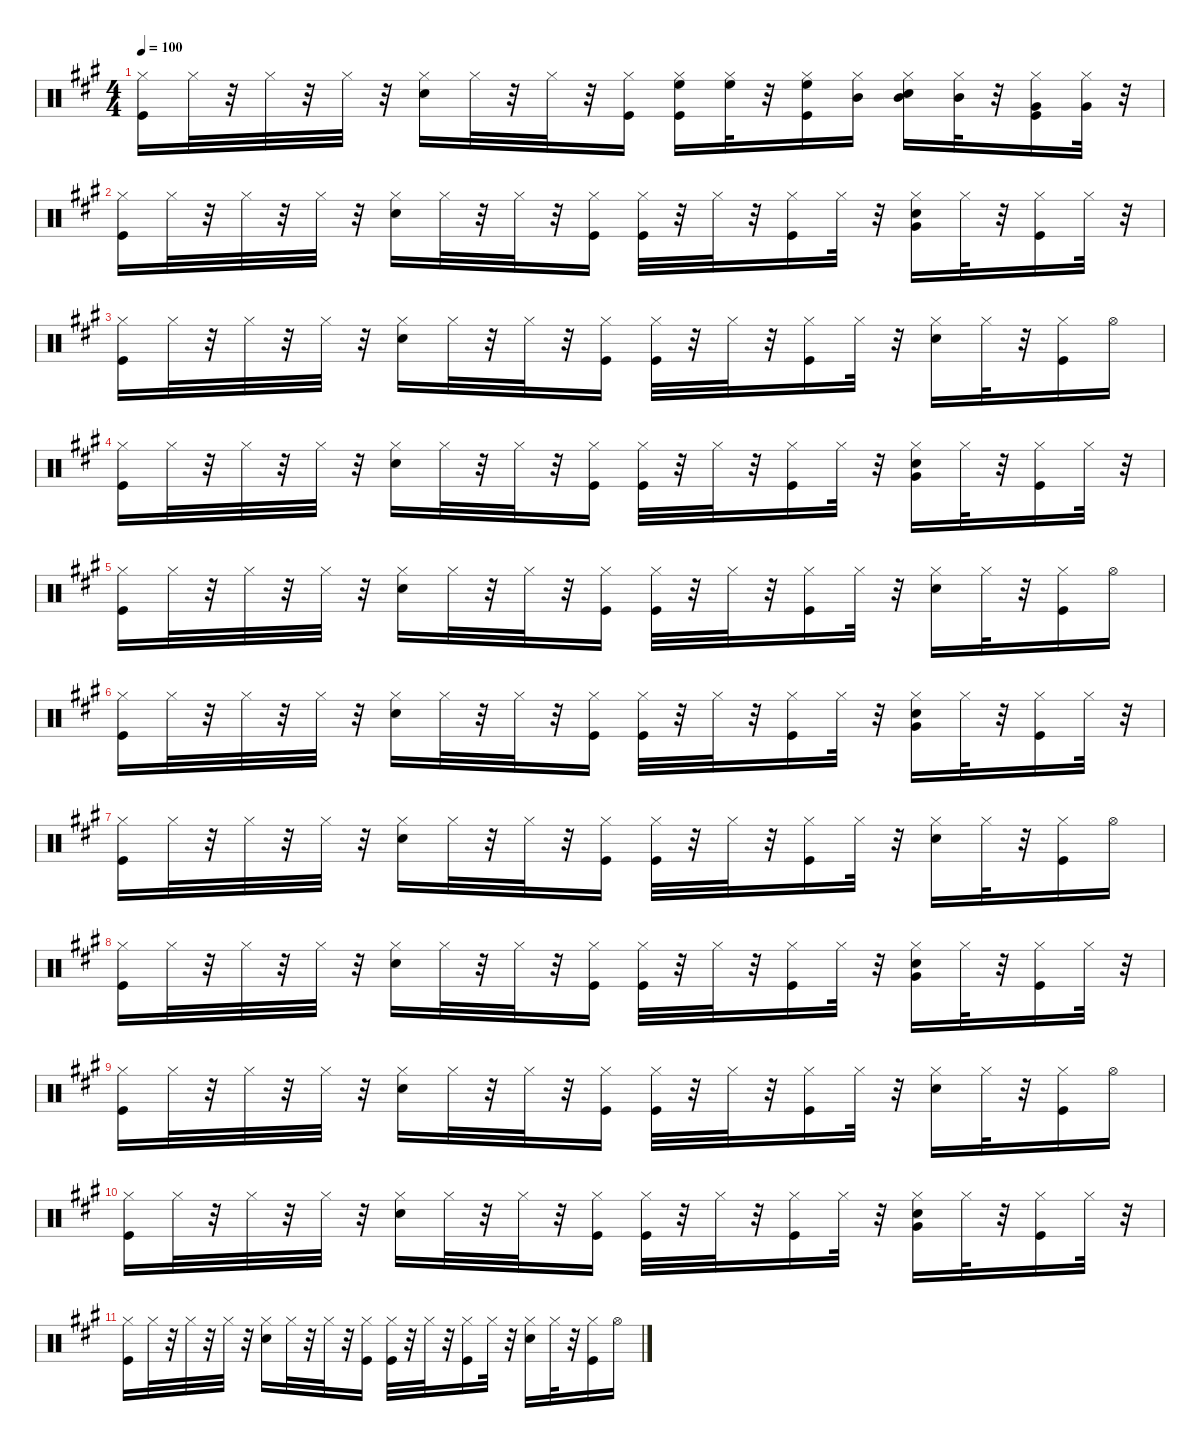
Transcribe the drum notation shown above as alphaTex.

\defaultSystemsLayout 4
\hideDynamics
\bracketExtendMode nobrackets
\singleTrackTrackNamePolicy hidden
\multiTrackTrackNamePolicy hidden
\otherSystemsTrackNameOrientation horizontal
\track ("Percussion" "drm.") {instrument percussion}
\staff {score}
\articulation defaults
\ts (4 4)
\tempo 100
\clef neutral
\ks a
("Kick (hit)"{acc forcenatural} "Hi-Hat (closed)"{acc forcenatural}).16{dy f beam Down} "Hi-Hat (closed)"{acc forcenatural}.32{dy mp beam Down} r.32{beam Down} "Hi-Hat (closed)"{acc forcenatural}.32{dy f beam Down} r.32{beam Down} "Hi-Hat (closed)"{acc forcenatural}.32{beam Down} r.32{beam Down} ("Snare (hit) 2"{acc forcenatural} "Hi-Hat (closed)"{acc forcenatural}).16{dy fff beam Down} "Hi-Hat (closed)"{acc forcenatural}.32{dy mp beam Down} r.32{beam Down} "Hi-Hat (closed)"{acc forcenatural}.32{dy f beam Down} r.32{beam Down} ("Kick (hit)"{acc forcenatural} "Hi-Hat (closed)"{acc forcenatural}).16{dy mf beam Down} ("Kick (hit)"{acc forcenatural} "Hi-Hat (closed)"{acc forcenatural} "High Floor Tom (hit)"{acc forcenatural}).16{dy f beam Down} ("Hi-Hat (closed)"{acc forcenatural} "High Floor Tom (hit)"{acc forcenatural}).32{dy mp beam Down} r.32{beam Down} ("Kick (hit)"{acc forcenatural} "Hi-Hat (closed)"{acc forcenatural} "High Floor Tom (hit)"{acc forcenatural}).16{dy f beam Down} ("Hi-Hat (closed)"{acc forcenatural} "Mid Tom (hit)"{acc forcenatural}).16{beam Down} ("Snare (hit) 2"{acc forcenatural} "Hi-Hat (closed)"{acc forcenatural} "Mid Tom (hit)"{acc forcenatural}).16{dy fff beam Down} ("Hi-Hat (closed)"{acc forcenatural} "Mid Tom (hit)"{acc forcenatural}).32{dy mp beam Down} r.32{beam Down} ("Kick (hit)"{acc forcenatural} "Hi-Hat (closed)"{acc forcenatural} "Very Low Tom (hit)"{acc forcenatural}).16{dy f beam Down} ("Hi-Hat (closed)"{acc forcenatural} "Very Low Tom (hit)"{acc forcenatural}).32{beam Down} r.32{beam Down} |
("Kick (hit)"{acc forcenatural} "Hi-Hat (closed)"{acc forcenatural}).16{beam Down} "Hi-Hat (closed)"{acc forcenatural}.32{dy mp beam Down} r.32{beam Down} "Hi-Hat (closed)"{acc forcenatural}.32{dy f beam Down} r.32{beam Down} "Hi-Hat (closed)"{acc forcenatural}.32{beam Down} r.32{beam Down} ("Snare (hit) 2"{acc forcenatural} "Hi-Hat (closed)"{acc forcenatural}).16{dy fff beam Down} "Hi-Hat (closed)"{acc forcenatural}.32{dy mp beam Down} r.32{beam Down} "Hi-Hat (closed)"{acc forcenatural}.32{dy f beam Down} r.32{beam Down} ("Kick (hit)"{acc forcenatural} "Hi-Hat (closed)"{acc forcenatural}).16{dy mf beam Down} ("Kick (hit)"{acc forcenatural} "Hi-Hat (closed)"{acc forcenatural}).32{dy f beam Down} r.32{beam Down} "Hi-Hat (closed)"{acc forcenatural}.32{dy mp beam Down} r.32{beam Down} ("Kick (hit)"{acc forcenatural} "Hi-Hat (closed)"{acc forcenatural}).16{dy f beam Down} "Hi-Hat (closed)"{acc forcenatural}.32{beam Down} r.32{beam Down} ("Snare (hit) 2"{acc forcenatural} "Hi-Hat (closed)"{acc forcenatural} "Very Low Tom (hit)"{acc forcenatural}).16{dy fff beam Down} "Hi-Hat (closed)"{acc forcenatural}.32{dy mp beam Down} r.32{beam Down} ("Kick (hit)"{acc forcenatural} "Hi-Hat (closed)"{acc forcenatural}).16{dy f beam Down} "Hi-Hat (closed)"{acc forcenatural}.32{beam Down} r.32{beam Down} |
("Kick (hit)"{acc forcenatural} "Hi-Hat (closed)"{acc forcenatural}).16{beam Down} "Hi-Hat (closed)"{acc forcenatural}.32{dy mp beam Down} r.32{beam Down} "Hi-Hat (closed)"{acc forcenatural}.32{dy f beam Down} r.32{beam Down} "Hi-Hat (closed)"{acc forcenatural}.32{beam Down} r.32{beam Down} ("Snare (hit) 2"{acc forcenatural} "Hi-Hat (closed)"{acc forcenatural}).16{dy fff beam Down} "Hi-Hat (closed)"{acc forcenatural}.32{dy mp beam Down} r.32{beam Down} "Hi-Hat (closed)"{acc forcenatural}.32{dy f beam Down} r.32{beam Down} ("Kick (hit)"{acc forcenatural} "Hi-Hat (closed)"{acc forcenatural}).16{dy mf beam Down} ("Kick (hit)"{acc forcenatural} "Hi-Hat (closed)"{acc forcenatural}).32{dy f beam Down} r.32{beam Down} "Hi-Hat (closed)"{acc forcenatural}.32{dy mp beam Down} r.32{beam Down} ("Kick (hit)"{acc forcenatural} "Hi-Hat (closed)"{acc forcenatural}).16{dy f beam Down} "Hi-Hat (closed)"{acc forcenatural}.32{beam Down} r.32{beam Down} ("Snare (hit) 2"{acc forcenatural} "Hi-Hat (closed)"{acc forcenatural}).16{dy fff beam Down} "Hi-Hat (closed)"{acc forcenatural}.32{dy mp beam Down} r.32{beam Down} ("Kick (hit)"{acc forcenatural} "Hi-Hat (closed)"{acc forcenatural}).16{dy f beam Down} "Hi-Hat (open)"{acc forcenatural}.16{beam Down} |
("Kick (hit)"{acc forcenatural} "Hi-Hat (closed)"{acc forcenatural}).16{beam Down} "Hi-Hat (closed)"{acc forcenatural}.32{dy mp beam Down} r.32{beam Down} "Hi-Hat (closed)"{acc forcenatural}.32{dy f beam Down} r.32{beam Down} "Hi-Hat (closed)"{acc forcenatural}.32{beam Down} r.32{beam Down} ("Snare (hit) 2"{acc forcenatural} "Hi-Hat (closed)"{acc forcenatural}).16{dy fff beam Down} "Hi-Hat (closed)"{acc forcenatural}.32{dy mp beam Down} r.32{beam Down} "Hi-Hat (closed)"{acc forcenatural}.32{dy f beam Down} r.32{beam Down} ("Kick (hit)"{acc forcenatural} "Hi-Hat (closed)"{acc forcenatural}).16{dy mf beam Down} ("Kick (hit)"{acc forcenatural} "Hi-Hat (closed)"{acc forcenatural}).32{dy f beam Down} r.32{beam Down} "Hi-Hat (closed)"{acc forcenatural}.32{dy mp beam Down} r.32{beam Down} ("Kick (hit)"{acc forcenatural} "Hi-Hat (closed)"{acc forcenatural}).16{dy f beam Down} "Hi-Hat (closed)"{acc forcenatural}.32{beam Down} r.32{beam Down} ("Snare (hit) 2"{acc forcenatural} "Hi-Hat (closed)"{acc forcenatural} "Very Low Tom (hit)"{acc forcenatural}).16{dy fff beam Down} "Hi-Hat (closed)"{acc forcenatural}.32{dy mp beam Down} r.32{beam Down} ("Kick (hit)"{acc forcenatural} "Hi-Hat (closed)"{acc forcenatural}).16{dy f beam Down} "Hi-Hat (closed)"{acc forcenatural}.32{beam Down} r.32{beam Down} |
("Kick (hit)"{acc forcenatural} "Hi-Hat (closed)"{acc forcenatural}).16{beam Down} "Hi-Hat (closed)"{acc forcenatural}.32{dy mp beam Down} r.32{beam Down} "Hi-Hat (closed)"{acc forcenatural}.32{dy f beam Down} r.32{beam Down} "Hi-Hat (closed)"{acc forcenatural}.32{beam Down} r.32{beam Down} ("Snare (hit) 2"{acc forcenatural} "Hi-Hat (closed)"{acc forcenatural}).16{dy fff beam Down} "Hi-Hat (closed)"{acc forcenatural}.32{dy mp beam Down} r.32{beam Down} "Hi-Hat (closed)"{acc forcenatural}.32{dy f beam Down} r.32{beam Down} ("Kick (hit)"{acc forcenatural} "Hi-Hat (closed)"{acc forcenatural}).16{dy mf beam Down} ("Kick (hit)"{acc forcenatural} "Hi-Hat (closed)"{acc forcenatural}).32{dy f beam Down} r.32{beam Down} "Hi-Hat (closed)"{acc forcenatural}.32{dy mp beam Down} r.32{beam Down} ("Kick (hit)"{acc forcenatural} "Hi-Hat (closed)"{acc forcenatural}).16{dy f beam Down} "Hi-Hat (closed)"{acc forcenatural}.32{beam Down} r.32{beam Down} ("Snare (hit) 2"{acc forcenatural} "Hi-Hat (closed)"{acc forcenatural}).16{dy fff beam Down} "Hi-Hat (closed)"{acc forcenatural}.32{dy mp beam Down} r.32{beam Down} ("Kick (hit)"{acc forcenatural} "Hi-Hat (closed)"{acc forcenatural}).16{dy f beam Down} "Hi-Hat (open)"{acc forcenatural}.16{beam Down} |
("Kick (hit)"{acc forcenatural} "Hi-Hat (closed)"{acc forcenatural}).16{beam Down} "Hi-Hat (closed)"{acc forcenatural}.32{dy mp beam Down} r.32{beam Down} "Hi-Hat (closed)"{acc forcenatural}.32{dy f beam Down} r.32{beam Down} "Hi-Hat (closed)"{acc forcenatural}.32{beam Down} r.32{beam Down} ("Snare (hit) 2"{acc forcenatural} "Hi-Hat (closed)"{acc forcenatural}).16{dy fff beam Down} "Hi-Hat (closed)"{acc forcenatural}.32{dy mp beam Down} r.32{beam Down} "Hi-Hat (closed)"{acc forcenatural}.32{dy f beam Down} r.32{beam Down} ("Kick (hit)"{acc forcenatural} "Hi-Hat (closed)"{acc forcenatural}).16{dy mf beam Down} ("Kick (hit)"{acc forcenatural} "Hi-Hat (closed)"{acc forcenatural}).32{dy f beam Down} r.32{beam Down} "Hi-Hat (closed)"{acc forcenatural}.32{dy mp beam Down} r.32{beam Down} ("Kick (hit)"{acc forcenatural} "Hi-Hat (closed)"{acc forcenatural}).16{dy f beam Down} "Hi-Hat (closed)"{acc forcenatural}.32{beam Down} r.32{beam Down} ("Snare (hit) 2"{acc forcenatural} "Hi-Hat (closed)"{acc forcenatural} "Very Low Tom (hit)"{acc forcenatural}).16{dy fff beam Down} "Hi-Hat (closed)"{acc forcenatural}.32{dy mp beam Down} r.32{beam Down} ("Kick (hit)"{acc forcenatural} "Hi-Hat (closed)"{acc forcenatural}).16{dy f beam Down} "Hi-Hat (closed)"{acc forcenatural}.32{beam Down} r.32{beam Down} |
("Kick (hit)"{acc forcenatural} "Hi-Hat (closed)"{acc forcenatural}).16{beam Down} "Hi-Hat (closed)"{acc forcenatural}.32{dy mp beam Down} r.32{beam Down} "Hi-Hat (closed)"{acc forcenatural}.32{dy f beam Down} r.32{beam Down} "Hi-Hat (closed)"{acc forcenatural}.32{beam Down} r.32{beam Down} ("Snare (hit) 2"{acc forcenatural} "Hi-Hat (closed)"{acc forcenatural}).16{dy fff beam Down} "Hi-Hat (closed)"{acc forcenatural}.32{dy mp beam Down} r.32{beam Down} "Hi-Hat (closed)"{acc forcenatural}.32{dy f beam Down} r.32{beam Down} ("Kick (hit)"{acc forcenatural} "Hi-Hat (closed)"{acc forcenatural}).16{dy mf beam Down} ("Kick (hit)"{acc forcenatural} "Hi-Hat (closed)"{acc forcenatural}).32{dy f beam Down} r.32{beam Down} "Hi-Hat (closed)"{acc forcenatural}.32{dy mp beam Down} r.32{beam Down} ("Kick (hit)"{acc forcenatural} "Hi-Hat (closed)"{acc forcenatural}).16{dy f beam Down} "Hi-Hat (closed)"{acc forcenatural}.32{beam Down} r.32{beam Down} ("Snare (hit) 2"{acc forcenatural} "Hi-Hat (closed)"{acc forcenatural}).16{dy fff beam Down} "Hi-Hat (closed)"{acc forcenatural}.32{dy mp beam Down} r.32{beam Down} ("Kick (hit)"{acc forcenatural} "Hi-Hat (closed)"{acc forcenatural}).16{dy f beam Down} "Hi-Hat (open)"{acc forcenatural}.16{beam Down} |
("Kick (hit)"{acc forcenatural} "Hi-Hat (closed)"{acc forcenatural}).16{beam Down} "Hi-Hat (closed)"{acc forcenatural}.32{dy mp beam Down} r.32{beam Down} "Hi-Hat (closed)"{acc forcenatural}.32{dy f beam Down} r.32{beam Down} "Hi-Hat (closed)"{acc forcenatural}.32{beam Down} r.32{beam Down} ("Snare (hit) 2"{acc forcenatural} "Hi-Hat (closed)"{acc forcenatural}).16{dy fff beam Down} "Hi-Hat (closed)"{acc forcenatural}.32{dy mp beam Down} r.32{beam Down} "Hi-Hat (closed)"{acc forcenatural}.32{dy f beam Down} r.32{beam Down} ("Kick (hit)"{acc forcenatural} "Hi-Hat (closed)"{acc forcenatural}).16{dy mf beam Down} ("Kick (hit)"{acc forcenatural} "Hi-Hat (closed)"{acc forcenatural}).32{dy f beam Down} r.32{beam Down} "Hi-Hat (closed)"{acc forcenatural}.32{dy mp beam Down} r.32{beam Down} ("Kick (hit)"{acc forcenatural} "Hi-Hat (closed)"{acc forcenatural}).16{dy f beam Down} "Hi-Hat (closed)"{acc forcenatural}.32{beam Down} r.32{beam Down} ("Snare (hit) 2"{acc forcenatural} "Hi-Hat (closed)"{acc forcenatural} "Very Low Tom (hit)"{acc forcenatural}).16{dy fff beam Down} "Hi-Hat (closed)"{acc forcenatural}.32{dy mp beam Down} r.32{beam Down} ("Kick (hit)"{acc forcenatural} "Hi-Hat (closed)"{acc forcenatural}).16{dy f beam Down} "Hi-Hat (closed)"{acc forcenatural}.32{beam Down} r.32{beam Down} |
("Kick (hit)"{acc forcenatural} "Hi-Hat (closed)"{acc forcenatural}).16{beam Down} "Hi-Hat (closed)"{acc forcenatural}.32{dy mp beam Down} r.32{beam Down} "Hi-Hat (closed)"{acc forcenatural}.32{dy f beam Down} r.32{beam Down} "Hi-Hat (closed)"{acc forcenatural}.32{beam Down} r.32{beam Down} ("Snare (hit) 2"{acc forcenatural} "Hi-Hat (closed)"{acc forcenatural}).16{dy fff beam Down} "Hi-Hat (closed)"{acc forcenatural}.32{dy mp beam Down} r.32{beam Down} "Hi-Hat (closed)"{acc forcenatural}.32{dy f beam Down} r.32{beam Down} ("Kick (hit)"{acc forcenatural} "Hi-Hat (closed)"{acc forcenatural}).16{dy mf beam Down} ("Kick (hit)"{acc forcenatural} "Hi-Hat (closed)"{acc forcenatural}).32{dy f beam Down} r.32{beam Down} "Hi-Hat (closed)"{acc forcenatural}.32{dy mp beam Down} r.32{beam Down} ("Kick (hit)"{acc forcenatural} "Hi-Hat (closed)"{acc forcenatural}).16{dy f beam Down} "Hi-Hat (closed)"{acc forcenatural}.32{beam Down} r.32{beam Down} ("Snare (hit) 2"{acc forcenatural} "Hi-Hat (closed)"{acc forcenatural}).16{dy fff beam Down} "Hi-Hat (closed)"{acc forcenatural}.32{dy mp beam Down} r.32{beam Down} ("Kick (hit)"{acc forcenatural} "Hi-Hat (closed)"{acc forcenatural}).16{dy f beam Down} "Hi-Hat (open)"{acc forcenatural}.16{beam Down} |
("Kick (hit)"{acc forcenatural} "Hi-Hat (closed)"{acc forcenatural}).16{beam Down} "Hi-Hat (closed)"{acc forcenatural}.32{dy mp beam Down} r.32{beam Down} "Hi-Hat (closed)"{acc forcenatural}.32{dy f beam Down} r.32{beam Down} "Hi-Hat (closed)"{acc forcenatural}.32{beam Down} r.32{beam Down} ("Snare (hit) 2"{acc forcenatural} "Hi-Hat (closed)"{acc forcenatural}).16{dy fff beam Down} "Hi-Hat (closed)"{acc forcenatural}.32{dy mp beam Down} r.32{beam Down} "Hi-Hat (closed)"{acc forcenatural}.32{dy f beam Down} r.32{beam Down} ("Kick (hit)"{acc forcenatural} "Hi-Hat (closed)"{acc forcenatural}).16{dy mf beam Down} ("Kick (hit)"{acc forcenatural} "Hi-Hat (closed)"{acc forcenatural}).32{dy f beam Down} r.32{beam Down} "Hi-Hat (closed)"{acc forcenatural}.32{dy mp beam Down} r.32{beam Down} ("Kick (hit)"{acc forcenatural} "Hi-Hat (closed)"{acc forcenatural}).16{dy f beam Down} "Hi-Hat (closed)"{acc forcenatural}.32{beam Down} r.32{beam Down} ("Snare (hit) 2"{acc forcenatural} "Hi-Hat (closed)"{acc forcenatural} "Very Low Tom (hit)"{acc forcenatural}).16{dy fff beam Down} "Hi-Hat (closed)"{acc forcenatural}.32{dy mp beam Down} r.32{beam Down} ("Kick (hit)"{acc forcenatural} "Hi-Hat (closed)"{acc forcenatural}).16{dy f beam Down} "Hi-Hat (closed)"{acc forcenatural}.32{beam Down} r.32{beam Down} |
("Kick (hit)"{acc forcenatural} "Hi-Hat (closed)"{acc forcenatural}).16{beam Down} "Hi-Hat (closed)"{acc forcenatural}.32{dy mp beam Down} r.32{beam Down} "Hi-Hat (closed)"{acc forcenatural}.32{dy f beam Down} r.32{beam Down} "Hi-Hat (closed)"{acc forcenatural}.32{beam Down} r.32{beam Down} ("Snare (hit) 2"{acc forcenatural} "Hi-Hat (closed)"{acc forcenatural}).16{dy fff beam Down} "Hi-Hat (closed)"{acc forcenatural}.32{dy mp beam Down} r.32{beam Down} "Hi-Hat (closed)"{acc forcenatural}.32{dy f beam Down} r.32{beam Down} ("Kick (hit)"{acc forcenatural} "Hi-Hat (closed)"{acc forcenatural}).16{dy mf beam Down} ("Kick (hit)"{acc forcenatural} "Hi-Hat (closed)"{acc forcenatural}).32{dy f beam Down} r.32{beam Down} "Hi-Hat (closed)"{acc forcenatural}.32{dy mp beam Down} r.32{beam Down} ("Kick (hit)"{acc forcenatural} "Hi-Hat (closed)"{acc forcenatural}).16{dy f beam Down} "Hi-Hat (closed)"{acc forcenatural}.32{beam Down} r.32{beam Down} ("Snare (hit) 2"{acc forcenatural} "Hi-Hat (closed)"{acc forcenatural}).16{dy fff beam Down} "Hi-Hat (closed)"{acc forcenatural}.32{dy mp beam Down} r.32{beam Down} ("Kick (hit)"{acc forcenatural} "Hi-Hat (closed)"{acc forcenatural}).16{dy f beam Down} "Hi-Hat (open)"{acc forcenatural}.16{beam Down}
